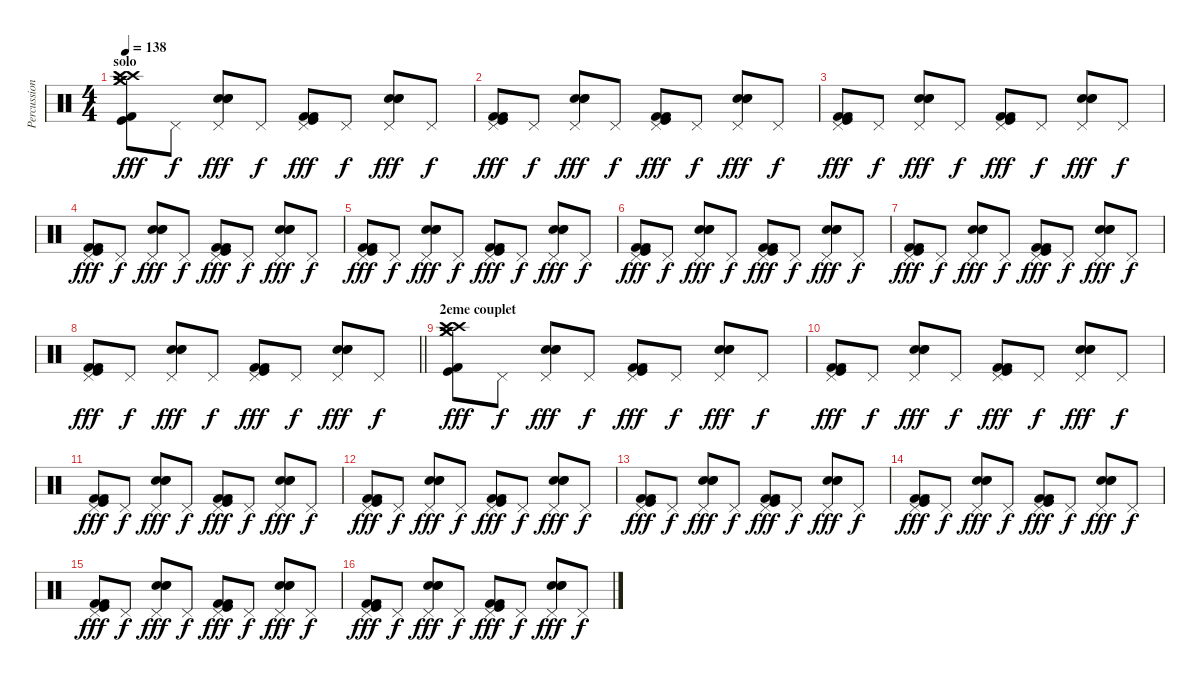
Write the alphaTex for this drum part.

\track ("Percussion" "Percussion") {instrument percussion}
\staff {score}
\articulation defaults
\ts (4 4)
\section ("" "solo")
\tempo 138
\clef neutral
\ks c
("Crash high (hit)" "Crash medium (hit)" "Kick (hit)" "Crash high (hit)" "Crash medium (hit)" "Kick (hit) 2").8{dy fff} "Pedal Hi-Hat (hit)".8{dy f} ("Pedal Hi-Hat (hit)" "Electric Snare (hit)" "Snare (hit) 2" "Electric Snare (hit)").8{dy fff} "Pedal Hi-Hat (hit)".8{dy f} ("Pedal Hi-Hat (hit)" "Kick (hit) 2" "Kick (hit)" "Kick (hit) 2").8{dy fff} "Pedal Hi-Hat (hit)".8{dy f} ("Pedal Hi-Hat (hit)" "Electric Snare (hit)" "Snare (hit) 2" "Electric Snare (hit)").8{dy fff} "Pedal Hi-Hat (hit)".8{dy f} |
("Pedal Hi-Hat (hit)" "Kick (hit) 2" "Kick (hit)" "Kick (hit) 2").8{dy fff} "Pedal Hi-Hat (hit)".8{dy f} ("Pedal Hi-Hat (hit)" "Electric Snare (hit)" "Snare (hit) 2" "Electric Snare (hit)").8{dy fff} "Pedal Hi-Hat (hit)".8{dy f} ("Pedal Hi-Hat (hit)" "Kick (hit) 2" "Kick (hit)" "Kick (hit) 2").8{dy fff} "Pedal Hi-Hat (hit)".8{dy f} ("Pedal Hi-Hat (hit)" "Electric Snare (hit)" "Snare (hit) 2" "Electric Snare (hit)").8{dy fff} "Pedal Hi-Hat (hit)".8{dy f} |
("Pedal Hi-Hat (hit)" "Kick (hit) 2" "Kick (hit)" "Kick (hit) 2").8{dy fff} "Pedal Hi-Hat (hit)".8{dy f} ("Pedal Hi-Hat (hit)" "Electric Snare (hit)" "Snare (hit) 2" "Electric Snare (hit)").8{dy fff} "Pedal Hi-Hat (hit)".8{dy f} ("Pedal Hi-Hat (hit)" "Kick (hit) 2" "Kick (hit)" "Kick (hit) 2").8{dy fff} "Pedal Hi-Hat (hit)".8{dy f} ("Pedal Hi-Hat (hit)" "Electric Snare (hit)" "Snare (hit) 2" "Electric Snare (hit)").8{dy fff} "Pedal Hi-Hat (hit)".8{dy f} |
("Pedal Hi-Hat (hit)" "Kick (hit) 2" "Kick (hit)" "Kick (hit) 2").8{dy fff} "Pedal Hi-Hat (hit)".8{dy f} ("Pedal Hi-Hat (hit)" "Electric Snare (hit)" "Snare (hit) 2" "Electric Snare (hit)").8{dy fff} "Pedal Hi-Hat (hit)".8{dy f} ("Pedal Hi-Hat (hit)" "Kick (hit) 2" "Kick (hit)" "Kick (hit) 2").8{dy fff} "Pedal Hi-Hat (hit)".8{dy f} ("Pedal Hi-Hat (hit)" "Electric Snare (hit)" "Snare (hit) 2" "Electric Snare (hit)").8{dy fff} "Pedal Hi-Hat (hit)".8{dy f} |
("Pedal Hi-Hat (hit)" "Kick (hit) 2" "Kick (hit)" "Kick (hit) 2").8{dy fff} "Pedal Hi-Hat (hit)".8{dy f} ("Pedal Hi-Hat (hit)" "Electric Snare (hit)" "Snare (hit) 2" "Electric Snare (hit)").8{dy fff} "Pedal Hi-Hat (hit)".8{dy f} ("Pedal Hi-Hat (hit)" "Kick (hit) 2" "Kick (hit)" "Kick (hit) 2").8{dy fff} "Pedal Hi-Hat (hit)".8{dy f} ("Pedal Hi-Hat (hit)" "Electric Snare (hit)" "Snare (hit) 2" "Electric Snare (hit)").8{dy fff} "Pedal Hi-Hat (hit)".8{dy f} |
("Pedal Hi-Hat (hit)" "Kick (hit) 2" "Kick (hit)" "Kick (hit) 2").8{dy fff} "Pedal Hi-Hat (hit)".8{dy f} ("Pedal Hi-Hat (hit)" "Electric Snare (hit)" "Snare (hit) 2" "Electric Snare (hit)").8{dy fff} "Pedal Hi-Hat (hit)".8{dy f} ("Pedal Hi-Hat (hit)" "Kick (hit) 2" "Kick (hit)" "Kick (hit) 2").8{dy fff} "Pedal Hi-Hat (hit)".8{dy f} ("Pedal Hi-Hat (hit)" "Electric Snare (hit)" "Snare (hit) 2" "Electric Snare (hit)").8{dy fff} "Pedal Hi-Hat (hit)".8{dy f} |
("Pedal Hi-Hat (hit)" "Kick (hit) 2" "Kick (hit)" "Kick (hit) 2").8{dy fff} "Pedal Hi-Hat (hit)".8{dy f} ("Pedal Hi-Hat (hit)" "Electric Snare (hit)" "Snare (hit) 2" "Electric Snare (hit)").8{dy fff} "Pedal Hi-Hat (hit)".8{dy f} ("Pedal Hi-Hat (hit)" "Kick (hit) 2" "Kick (hit)" "Kick (hit) 2").8{dy fff} "Pedal Hi-Hat (hit)".8{dy f} ("Pedal Hi-Hat (hit)" "Electric Snare (hit)" "Snare (hit) 2" "Electric Snare (hit)").8{dy fff} "Pedal Hi-Hat (hit)".8{dy f} |
\barLineRight lightlight
("Pedal Hi-Hat (hit)" "Kick (hit) 2" "Kick (hit)" "Kick (hit) 2").8{dy fff} "Pedal Hi-Hat (hit)".8{dy f} ("Pedal Hi-Hat (hit)" "Electric Snare (hit)" "Snare (hit) 2" "Electric Snare (hit)").8{dy fff} "Pedal Hi-Hat (hit)".8{dy f} ("Pedal Hi-Hat (hit)" "Kick (hit) 2" "Kick (hit)" "Kick (hit) 2").8{dy fff} "Pedal Hi-Hat (hit)".8{dy f} ("Pedal Hi-Hat (hit)" "Electric Snare (hit)" "Snare (hit) 2" "Electric Snare (hit)").8{dy fff} "Pedal Hi-Hat (hit)".8{dy f} |
\section ("" "2eme couplet")
("Crash high (hit)" "Crash medium (hit)" "Kick (hit)" "Crash high (hit)" "Crash medium (hit)" "Kick (hit) 2").8{dy fff} "Pedal Hi-Hat (hit)".8{dy f} ("Pedal Hi-Hat (hit)" "Electric Snare (hit)" "Snare (hit) 2" "Electric Snare (hit)").8{dy fff} "Pedal Hi-Hat (hit)".8{dy f} ("Pedal Hi-Hat (hit)" "Kick (hit) 2" "Kick (hit)" "Kick (hit) 2").8{dy fff} "Pedal Hi-Hat (hit)".8{dy f} ("Pedal Hi-Hat (hit)" "Electric Snare (hit)" "Snare (hit) 2" "Electric Snare (hit)").8{dy fff} "Pedal Hi-Hat (hit)".8{dy f} |
("Pedal Hi-Hat (hit)" "Kick (hit) 2" "Kick (hit)" "Kick (hit) 2").8{dy fff} "Pedal Hi-Hat (hit)".8{dy f} ("Pedal Hi-Hat (hit)" "Electric Snare (hit)" "Snare (hit) 2" "Electric Snare (hit)").8{dy fff} "Pedal Hi-Hat (hit)".8{dy f} ("Pedal Hi-Hat (hit)" "Kick (hit) 2" "Kick (hit)" "Kick (hit) 2").8{dy fff} "Pedal Hi-Hat (hit)".8{dy f} ("Pedal Hi-Hat (hit)" "Electric Snare (hit)" "Snare (hit) 2" "Electric Snare (hit)").8{dy fff} "Pedal Hi-Hat (hit)".8{dy f} |
("Pedal Hi-Hat (hit)" "Kick (hit) 2" "Kick (hit)" "Kick (hit) 2").8{dy fff} "Pedal Hi-Hat (hit)".8{dy f} ("Pedal Hi-Hat (hit)" "Electric Snare (hit)" "Snare (hit) 2" "Electric Snare (hit)").8{dy fff} "Pedal Hi-Hat (hit)".8{dy f} ("Pedal Hi-Hat (hit)" "Kick (hit) 2" "Kick (hit)" "Kick (hit) 2").8{dy fff} "Pedal Hi-Hat (hit)".8{dy f} ("Pedal Hi-Hat (hit)" "Electric Snare (hit)" "Snare (hit) 2" "Electric Snare (hit)").8{dy fff} "Pedal Hi-Hat (hit)".8{dy f} |
("Pedal Hi-Hat (hit)" "Kick (hit) 2" "Kick (hit)" "Kick (hit) 2").8{dy fff} "Pedal Hi-Hat (hit)".8{dy f} ("Pedal Hi-Hat (hit)" "Electric Snare (hit)" "Snare (hit) 2" "Electric Snare (hit)").8{dy fff} "Pedal Hi-Hat (hit)".8{dy f} ("Pedal Hi-Hat (hit)" "Kick (hit) 2" "Kick (hit)" "Kick (hit) 2").8{dy fff} "Pedal Hi-Hat (hit)".8{dy f} ("Pedal Hi-Hat (hit)" "Electric Snare (hit)" "Snare (hit) 2" "Electric Snare (hit)").8{dy fff} "Pedal Hi-Hat (hit)".8{dy f} |
("Pedal Hi-Hat (hit)" "Kick (hit) 2" "Kick (hit)" "Kick (hit) 2").8{dy fff} "Pedal Hi-Hat (hit)".8{dy f} ("Pedal Hi-Hat (hit)" "Electric Snare (hit)" "Snare (hit) 2" "Electric Snare (hit)").8{dy fff} "Pedal Hi-Hat (hit)".8{dy f} ("Pedal Hi-Hat (hit)" "Kick (hit) 2" "Kick (hit)" "Kick (hit) 2").8{dy fff} "Pedal Hi-Hat (hit)".8{dy f} ("Pedal Hi-Hat (hit)" "Electric Snare (hit)" "Snare (hit) 2" "Electric Snare (hit)").8{dy fff} "Pedal Hi-Hat (hit)".8{dy f} |
("Pedal Hi-Hat (hit)" "Kick (hit) 2" "Kick (hit)" "Kick (hit) 2").8{dy fff} "Pedal Hi-Hat (hit)".8{dy f} ("Pedal Hi-Hat (hit)" "Electric Snare (hit)" "Snare (hit) 2" "Electric Snare (hit)").8{dy fff} "Pedal Hi-Hat (hit)".8{dy f} ("Pedal Hi-Hat (hit)" "Kick (hit) 2" "Kick (hit)" "Kick (hit) 2").8{dy fff} "Pedal Hi-Hat (hit)".8{dy f} ("Pedal Hi-Hat (hit)" "Electric Snare (hit)" "Snare (hit) 2" "Electric Snare (hit)").8{dy fff} "Pedal Hi-Hat (hit)".8{dy f} |
("Pedal Hi-Hat (hit)" "Kick (hit) 2" "Kick (hit)" "Kick (hit) 2").8{dy fff} "Pedal Hi-Hat (hit)".8{dy f} ("Pedal Hi-Hat (hit)" "Electric Snare (hit)" "Snare (hit) 2" "Electric Snare (hit)").8{dy fff} "Pedal Hi-Hat (hit)".8{dy f} ("Pedal Hi-Hat (hit)" "Kick (hit) 2" "Kick (hit)" "Kick (hit) 2").8{dy fff} "Pedal Hi-Hat (hit)".8{dy f} ("Pedal Hi-Hat (hit)" "Electric Snare (hit)" "Snare (hit) 2" "Electric Snare (hit)").8{dy fff} "Pedal Hi-Hat (hit)".8{dy f} |
("Pedal Hi-Hat (hit)" "Kick (hit) 2" "Kick (hit)" "Kick (hit) 2").8{dy fff} "Pedal Hi-Hat (hit)".8{dy f} ("Pedal Hi-Hat (hit)" "Electric Snare (hit)" "Snare (hit) 2" "Electric Snare (hit)").8{dy fff} "Pedal Hi-Hat (hit)".8{dy f} ("Pedal Hi-Hat (hit)" "Kick (hit) 2" "Kick (hit)" "Kick (hit) 2").8{dy fff} "Pedal Hi-Hat (hit)".8{dy f} ("Pedal Hi-Hat (hit)" "Electric Snare (hit)" "Snare (hit) 2" "Electric Snare (hit)").8{dy fff} "Pedal Hi-Hat (hit)".8{dy f}
